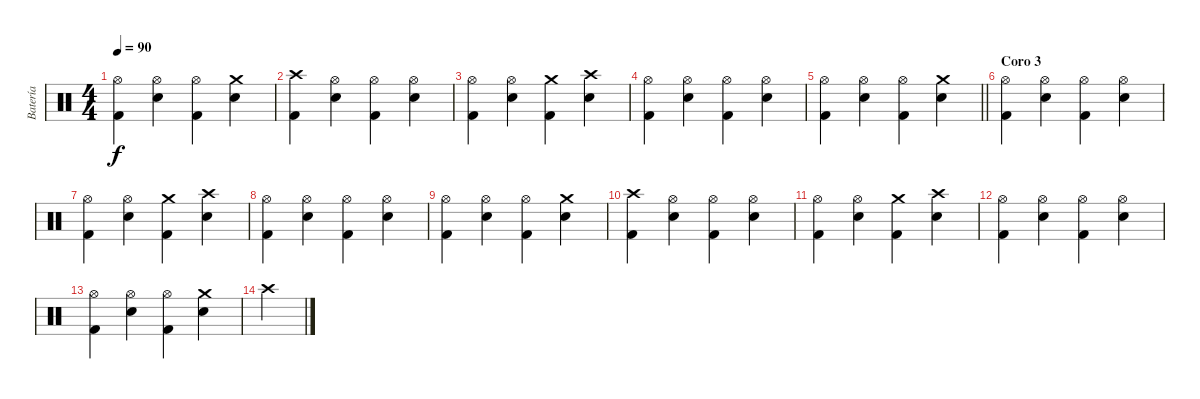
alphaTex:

\track ("Batería" "Batería") {instrument percussion}
\staff {score}
\articulation defaults
\ts (4 4)
\tempo 90
\clef neutral
\ks c
("Hi-Hat (open)" "Kick (hit) 2").4{dy f} ("Hi-Hat (open)" "Snare (hit) 2").4 ("Hi-Hat (open)" "Kick (hit) 2").4 ("Crash medium (hit)" "Snare (hit) 2").4 |
("Crash high (hit)" "Kick (hit) 2").4 ("Hi-Hat (open)" "Snare (hit) 2").4 ("Hi-Hat (open)" "Kick (hit) 2").4 ("Hi-Hat (open)" "Snare (hit) 2").4 |
("Hi-Hat (open)" "Kick (hit) 2").4 ("Hi-Hat (open)" "Snare (hit) 2").4 ("Crash medium (hit)" "Kick (hit) 2").4 ("Crash high (hit)" "Snare (hit) 2").4 |
("Hi-Hat (open)" "Kick (hit) 2").4 ("Hi-Hat (open)" "Snare (hit) 2").4 ("Hi-Hat (open)" "Kick (hit) 2").4 ("Hi-Hat (open)" "Snare (hit) 2").4 |
\barLineRight lightlight
("Hi-Hat (open)" "Kick (hit) 2").4 ("Hi-Hat (open)" "Snare (hit) 2").4 ("Hi-Hat (open)" "Kick (hit) 2").4 ("Crash medium (hit)" "Snare (hit) 2").4 |
\section ("" "Coro 3")
("Hi-Hat (open)" "Kick (hit) 2").4 ("Hi-Hat (open)" "Snare (hit) 2").4 ("Hi-Hat (open)" "Kick (hit) 2").4 ("Hi-Hat (open)" "Snare (hit) 2").4 |
("Hi-Hat (open)" "Kick (hit) 2").4 ("Hi-Hat (open)" "Snare (hit) 2").4 ("Crash medium (hit)" "Kick (hit) 2").4 ("Crash high (hit)" "Snare (hit) 2").4 |
("Hi-Hat (open)" "Kick (hit) 2").4 ("Hi-Hat (open)" "Snare (hit) 2").4 ("Hi-Hat (open)" "Kick (hit) 2").4 ("Hi-Hat (open)" "Snare (hit) 2").4 |
("Hi-Hat (open)" "Kick (hit) 2").4 ("Hi-Hat (open)" "Snare (hit) 2").4 ("Hi-Hat (open)" "Kick (hit) 2").4 ("Crash medium (hit)" "Snare (hit) 2").4 |
("Crash high (hit)" "Kick (hit) 2").4 ("Hi-Hat (open)" "Snare (hit) 2").4 ("Hi-Hat (open)" "Kick (hit) 2").4 ("Hi-Hat (open)" "Snare (hit) 2").4 |
("Hi-Hat (open)" "Kick (hit) 2").4 ("Hi-Hat (open)" "Snare (hit) 2").4 ("Crash medium (hit)" "Kick (hit) 2").4 ("Crash high (hit)" "Snare (hit) 2").4 |
("Hi-Hat (open)" "Kick (hit) 2").4 ("Hi-Hat (open)" "Snare (hit) 2").4 ("Hi-Hat (open)" "Kick (hit) 2").4 ("Hi-Hat (open)" "Snare (hit) 2").4 |
("Hi-Hat (open)" "Kick (hit) 2").4 ("Hi-Hat (open)" "Snare (hit) 2").4 ("Hi-Hat (open)" "Kick (hit) 2").4 ("Crash medium (hit)" "Snare (hit) 2").4 |
"Crash high (hit)".4
